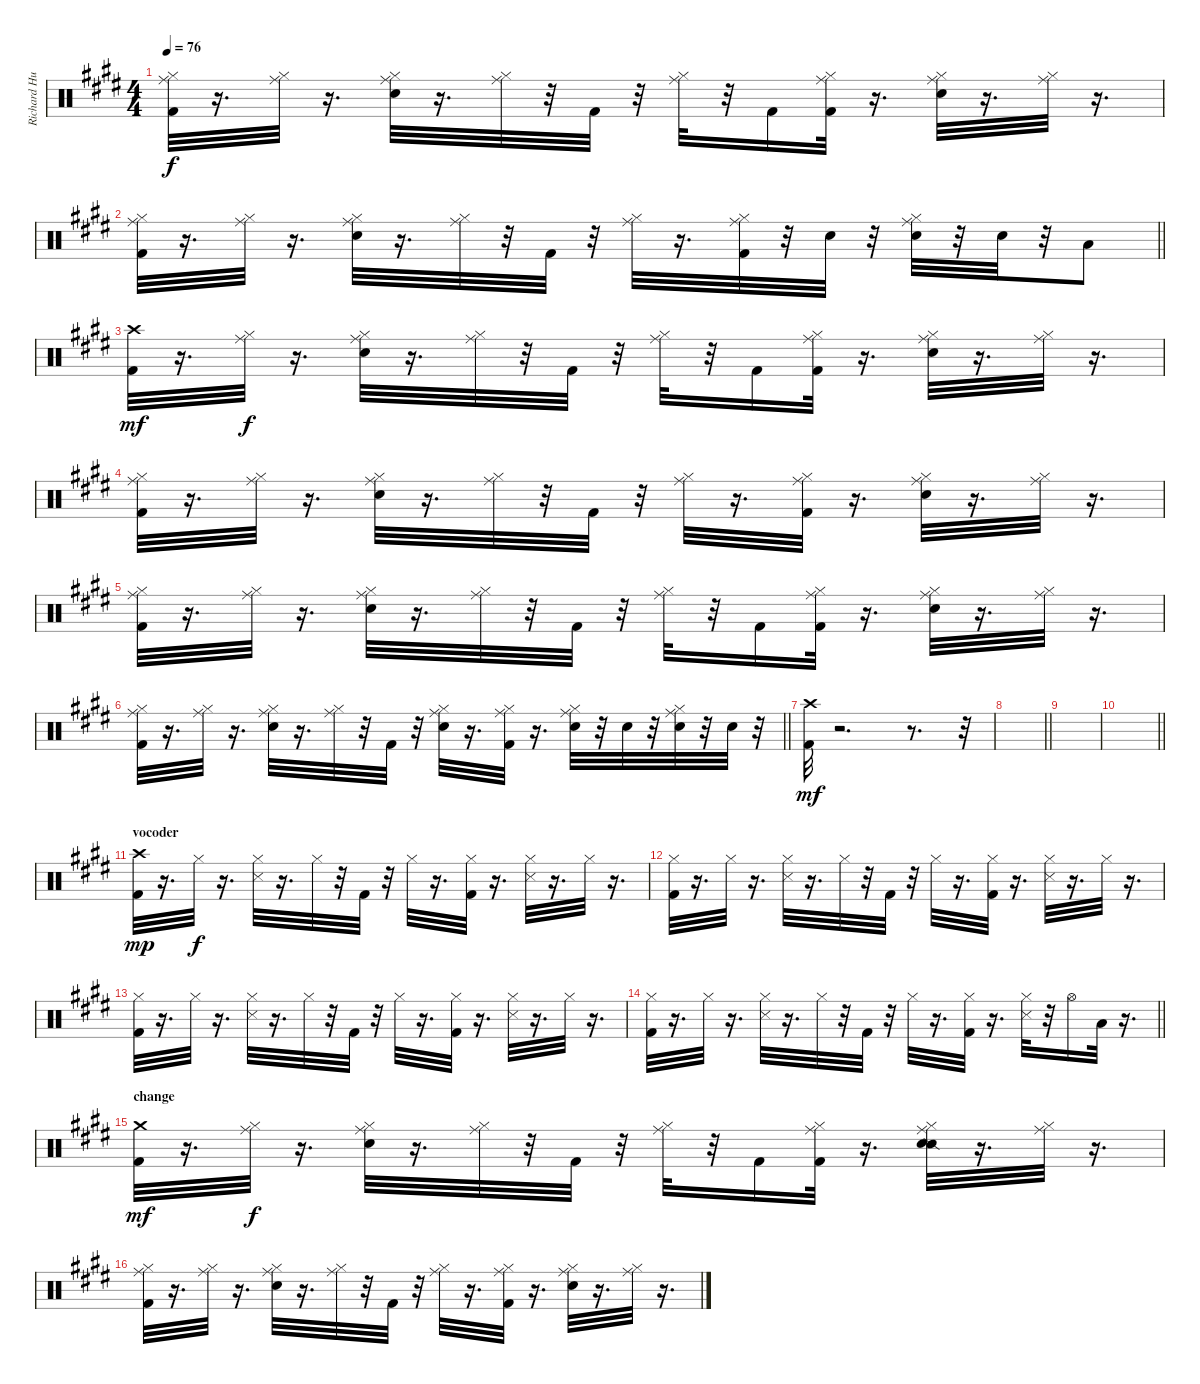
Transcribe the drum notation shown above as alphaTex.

\track ("Richard Hughes" "Richard Hu") {instrument percussion}
\staff {score}
\articulation defaults
\ts (4 4)
\tempo 76
\clef neutral
\ks e
("Kick (hit) 2" "Hi-Hat (closed)" "Ride (middle)").32{dy f} r.16{d} ("Hi-Hat (closed)" "Ride (middle)").32 r.16{d} ("Ride (middle)" "Hi-Hat (closed)" "Electric Snare (hit)").32 r.16{d} ("Ride (middle)" "Hi-Hat (closed)").32 r.32 "Kick (hit) 2".32 r.32 ("Ride (middle)" "Hi-Hat (closed)").32 r.32 "Kick (hit) 2".16 ("Kick (hit) 2" "Hi-Hat (closed)" "Ride (middle)").32 r.16{d} ("Hi-Hat (closed)" "Ride (middle)" "Electric Snare (hit)").32 r.16{d} ("Hi-Hat (closed)" "Ride (middle)").32 r.16{d} |
\barLineRight lightlight
("Kick (hit) 2" "Hi-Hat (closed)" "Ride (middle)").32 r.16{d} ("Hi-Hat (closed)" "Ride (middle)").32 r.16{d} ("Hi-Hat (closed)" "Ride (middle)" "Electric Snare (hit)").32 r.16{d} ("Hi-Hat (closed)" "Ride (middle)").32 r.32 "Kick (hit) 2".32 r.32 ("Hi-Hat (closed)" "Ride (middle)").32 r.16{d} ("Kick (hit) 2" "Ride (middle)" "Hi-Hat (closed)").32 r.32 "Electric Snare (hit)".32 r.32 ("Ride (middle)" "Hi-Hat (closed)" "Electric Snare (hit)").32 r.32 "Electric Snare (hit)".32 r.32 "Low Tom (hit)".8 |
("Kick (hit) 2" "Crash high (hit)").32{dy mf} r.16{d} ("Hi-Hat (closed)" "Ride (middle)").32{dy f} r.16{d} ("Hi-Hat (closed)" "Ride (middle)" "Electric Snare (hit)").32 r.16{d} ("Ride (middle)" "Hi-Hat (closed)").32 r.32 "Kick (hit) 2".32 r.32 ("Hi-Hat (closed)" "Ride (middle)").32 r.32 "Kick (hit) 2".16 ("Kick (hit) 2" "Ride (middle)" "Hi-Hat (closed)").32 r.16{d} ("Ride (middle)" "Hi-Hat (closed)" "Electric Snare (hit)").32 r.16{d} ("Ride (middle)" "Hi-Hat (closed)").32 r.16{d} |
("Kick (hit) 2" "Ride (middle)" "Hi-Hat (closed)").32 r.16{d} ("Ride (middle)" "Hi-Hat (closed)").32 r.16{d} ("Ride (middle)" "Hi-Hat (closed)" "Electric Snare (hit)").32 r.16{d} ("Hi-Hat (closed)" "Ride (middle)").32 r.32 "Kick (hit) 2".32 r.32 ("Hi-Hat (closed)" "Ride (middle)").32 r.16{d} ("Kick (hit) 2" "Ride (middle)" "Hi-Hat (closed)").32 r.16{d} ("Hi-Hat (closed)" "Ride (middle)" "Electric Snare (hit)").32 r.16{d} ("Ride (middle)" "Hi-Hat (closed)").32 r.16{d} |
("Kick (hit) 2" "Ride (middle)" "Hi-Hat (closed)").32 r.16{d} ("Hi-Hat (closed)" "Ride (middle)").32 r.16{d} ("Ride (middle)" "Hi-Hat (closed)" "Electric Snare (hit)").32 r.16{d} ("Hi-Hat (closed)" "Ride (middle)").32 r.32 "Kick (hit) 2".32 r.32 ("Hi-Hat (closed)" "Ride (middle)").32 r.32 "Kick (hit) 2".16 ("Kick (hit) 2" "Ride (middle)" "Hi-Hat (closed)").32 r.16{d} ("Ride (middle)" "Hi-Hat (closed)" "Electric Snare (hit)").32 r.16{d} ("Hi-Hat (closed)" "Ride (middle)").32 r.16{d} |
\barLineRight lightlight
("Kick (hit) 2" "Ride (middle)" "Hi-Hat (closed)").32 r.16{d} ("Ride (middle)" "Hi-Hat (closed)").32 r.16{d} ("Ride (middle)" "Hi-Hat (closed)" "Electric Snare (hit)").32 r.16{d} ("Hi-Hat (closed)" "Ride (middle)").32 r.32 "Kick (hit) 2".32 r.32 ("Hi-Hat (closed)" "Ride (middle)" "Electric Snare (hit)").32 r.16{d} ("Kick (hit) 2" "Hi-Hat (closed)" "Ride (middle)").32 r.16{d} ("Ride (middle)" "Hi-Hat (closed)" "Electric Snare (hit)").32 r.32 "Electric Snare (hit)".32 r.32 ("Electric Snare (hit)" "Hi-Hat (closed)" "Ride (middle)").32 r.32 "Electric Snare (hit)".32 r.32 |
("Kick (hit) 2" "Crash high (hit)").32{dy mf} r.2{d} r.8{d} r.32 |
\barLineRight lightlight
|
|
\barLineRight lightlight
|
\section ("" "vocoder")
("Kick (hit) 2" "Crash high (hit)").32{dy mp} r.16{d} "Hi-Hat (closed)".32{dy f} r.16{d} ("Hi-Hat (closed)" "Snare (side stick) 3").32 r.16{d} "Hi-Hat (closed)".32 r.32 "Kick (hit) 2".32 r.32 "Hi-Hat (closed)".32 r.16{d} ("Kick (hit) 2" "Hi-Hat (closed)").32 r.16{d} ("Snare (side stick) 3" "Hi-Hat (closed)").32 r.16{d} "Hi-Hat (closed)".32 r.16{d} |
("Kick (hit) 2" "Hi-Hat (closed)").32 r.16{d} "Hi-Hat (closed)".32 r.16{d} ("Snare (side stick) 3" "Hi-Hat (closed)").32 r.16{d} "Hi-Hat (closed)".32 r.32 "Kick (hit) 2".32 r.32 "Hi-Hat (closed)".32 r.16{d} ("Kick (hit) 2" "Hi-Hat (closed)").32 r.16{d} ("Snare (side stick) 3" "Hi-Hat (closed)").32 r.16{d} "Hi-Hat (closed)".32 r.16{d} |
("Kick (hit) 2" "Hi-Hat (closed)").32 r.16{d} "Hi-Hat (closed)".32 r.16{d} ("Hi-Hat (closed)" "Snare (side stick) 3").32 r.16{d} "Hi-Hat (closed)".32 r.32 "Kick (hit) 2".32 r.32 "Hi-Hat (closed)".32 r.16{d} ("Kick (hit) 2" "Hi-Hat (closed)").32 r.16{d} ("Snare (side stick) 3" "Hi-Hat (closed)").32 r.16{d} "Hi-Hat (closed)".32 r.16{d} |
\barLineRight lightlight
("Kick (hit) 2" "Hi-Hat (closed)").32 r.16{d} "Hi-Hat (closed)".32 r.16{d} ("Hi-Hat (closed)" "Snare (side stick) 3").32 r.16{d} "Hi-Hat (closed)".32 r.32 "Kick (hit) 2".32 r.32 "Hi-Hat (closed)".32 r.16{d} ("Kick (hit) 2" "Hi-Hat (closed)").32 r.16{d} ("Hi-Hat (closed)" "Snare (side stick) 3").32 r.32 "Hi-Hat (open)".16 "Low Tom (hit)".32 r.16{d} |
\section ("" "change")
("Kick (hit) 2" "Crash medium (hit)").32{dy mf} r.16{d} ("Ride (middle)" "Hi-Hat (closed)").32{dy f} r.16{d} ("Hi-Hat (closed)" "Ride (middle)" "Electric Snare (hit)").32 r.16{d} ("Ride (middle)" "Hi-Hat (closed)").32 r.32 "Kick (hit) 2".32 r.32 ("Ride (middle)" "Hi-Hat (closed)").32 r.32 "Kick (hit) 2".16 ("Kick (hit) 2" "Hi-Hat (closed)" "Ride (middle)").32 r.16{d} ("Hi-Hat (closed)" "Ride (middle)" "Snare (side stick) 2" "Electric Snare (hit)").32 r.16{d} ("Hi-Hat (closed)" "Ride (middle)").32 r.16{d} |
("Kick (hit) 2" "Ride (middle)" "Hi-Hat (closed)").32 r.16{d} ("Ride (middle)" "Hi-Hat (closed)").32 r.16{d} ("Ride (middle)" "Hi-Hat (closed)" "Electric Snare (hit)").32 r.16{d} ("Hi-Hat (closed)" "Ride (middle)").32 r.32 "Kick (hit) 2".32 r.32 ("Ride (middle)" "Hi-Hat (closed)").32 r.16{d} ("Kick (hit) 2" "Ride (middle)" "Hi-Hat (closed)").32 r.16{d} ("Ride (middle)" "Hi-Hat (closed)" "Electric Snare (hit)").32 r.16{d} ("Ride (middle)" "Hi-Hat (closed)").32 r.16{d}
